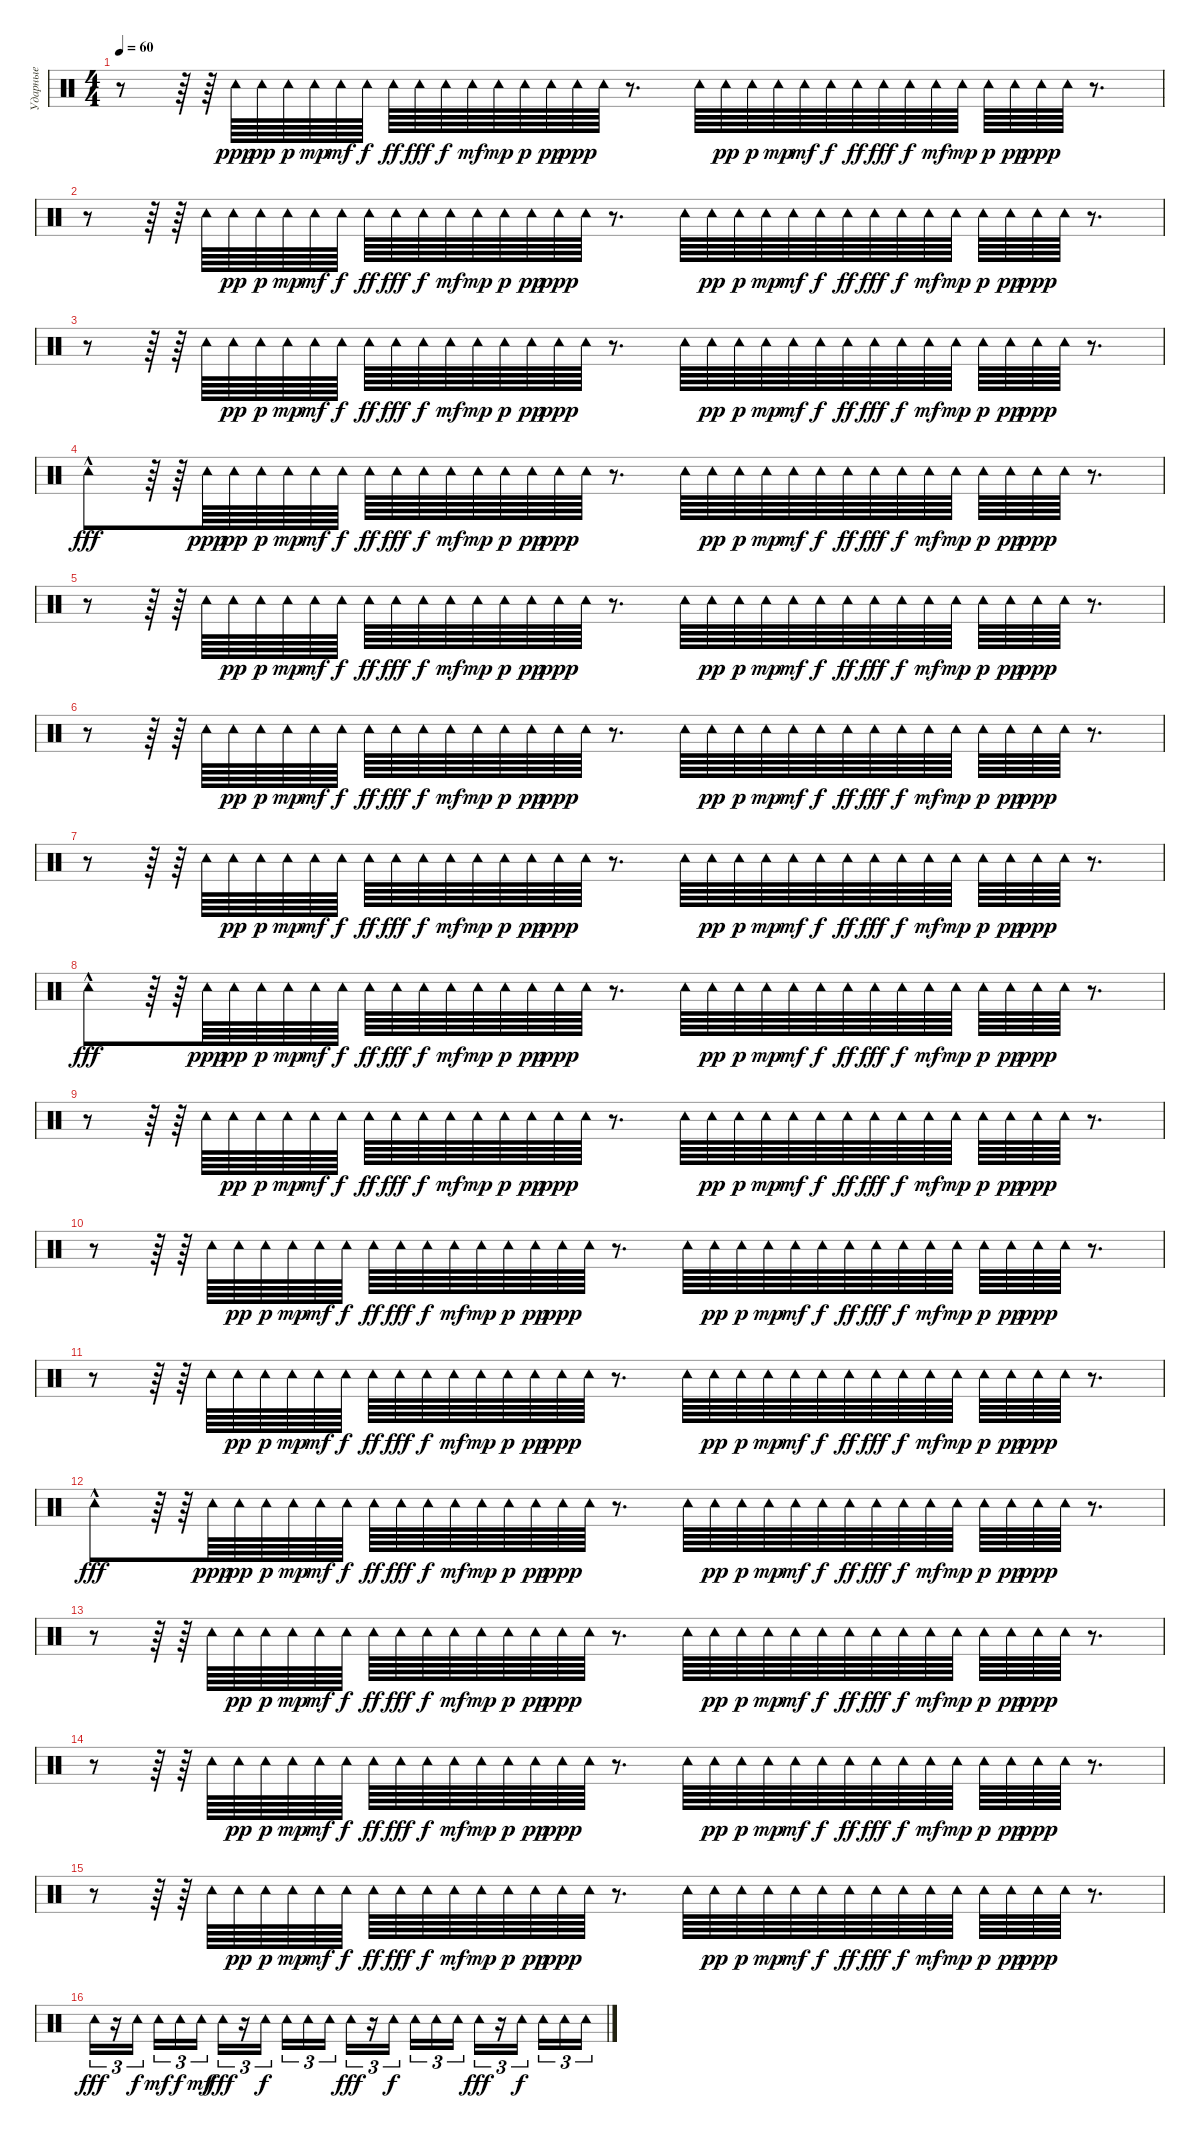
\track ("Ударные" "Ударные") {instrument percussion}
\staff {score}
\articulation defaults
\ts (4 4)
\tempo 60
\clef neutral
\ks c
r.8{dy ppp} r.64 r.64 "Tambourine (hit)".64 "Tambourine (hit)".64{dy pp} "Tambourine (hit)".64{dy p} "Tambourine (hit)".64{dy mp} "Tambourine (hit)".64{dy mf} "Tambourine (hit)".64{dy f} "Tambourine (hit)".64{dy ff} "Tambourine (hit)".64{dy fff} "Tambourine (hit)".64{dy f} "Tambourine (hit)".64{dy mf} "Tambourine (hit)".64{dy mp} "Tambourine (hit)".64{dy p} "Tambourine (hit)".64{dy pp} "Tambourine (hit)".64{dy ppp} "Tambourine (hit)".64 r.8{d} "Tambourine (hit)".64 "Tambourine (hit)".64{dy pp} "Tambourine (hit)".64{dy p} "Tambourine (hit)".64{dy mp} "Tambourine (hit)".64{dy mf} "Tambourine (hit)".64{dy f} "Tambourine (hit)".64{dy ff} "Tambourine (hit)".64{dy fff} "Tambourine (hit)".64{dy f} "Tambourine (hit)".64{dy mf} "Tambourine (hit)".64{dy mp} "Tambourine (hit)".64{dy p} "Tambourine (hit)".64{dy pp} "Tambourine (hit)".64{dy ppp} "Tambourine (hit)".64 r.8{d} |
r.8 r.64 r.64 "Tambourine (hit)".64 "Tambourine (hit)".64{dy pp} "Tambourine (hit)".64{dy p} "Tambourine (hit)".64{dy mp} "Tambourine (hit)".64{dy mf} "Tambourine (hit)".64{dy f} "Tambourine (hit)".64{dy ff} "Tambourine (hit)".64{dy fff} "Tambourine (hit)".64{dy f} "Tambourine (hit)".64{dy mf} "Tambourine (hit)".64{dy mp} "Tambourine (hit)".64{dy p} "Tambourine (hit)".64{dy pp} "Tambourine (hit)".64{dy ppp} "Tambourine (hit)".64 r.8{d} "Tambourine (hit)".64 "Tambourine (hit)".64{dy pp} "Tambourine (hit)".64{dy p} "Tambourine (hit)".64{dy mp} "Tambourine (hit)".64{dy mf} "Tambourine (hit)".64{dy f} "Tambourine (hit)".64{dy ff} "Tambourine (hit)".64{dy fff} "Tambourine (hit)".64{dy f} "Tambourine (hit)".64{dy mf} "Tambourine (hit)".64{dy mp} "Tambourine (hit)".64{dy p} "Tambourine (hit)".64{dy pp} "Tambourine (hit)".64{dy ppp} "Tambourine (hit)".64 r.8{d} |
r.8 r.64 r.64 "Tambourine (hit)".64 "Tambourine (hit)".64{dy pp} "Tambourine (hit)".64{dy p} "Tambourine (hit)".64{dy mp} "Tambourine (hit)".64{dy mf} "Tambourine (hit)".64{dy f} "Tambourine (hit)".64{dy ff} "Tambourine (hit)".64{dy fff} "Tambourine (hit)".64{dy f} "Tambourine (hit)".64{dy mf} "Tambourine (hit)".64{dy mp} "Tambourine (hit)".64{dy p} "Tambourine (hit)".64{dy pp} "Tambourine (hit)".64{dy ppp} "Tambourine (hit)".64 r.8{d} "Tambourine (hit)".64 "Tambourine (hit)".64{dy pp} "Tambourine (hit)".64{dy p} "Tambourine (hit)".64{dy mp} "Tambourine (hit)".64{dy mf} "Tambourine (hit)".64{dy f} "Tambourine (hit)".64{dy ff} "Tambourine (hit)".64{dy fff} "Tambourine (hit)".64{dy f} "Tambourine (hit)".64{dy mf} "Tambourine (hit)".64{dy mp} "Tambourine (hit)".64{dy p} "Tambourine (hit)".64{dy pp} "Tambourine (hit)".64{dy ppp} "Tambourine (hit)".64 r.8{d} |
"Tambourine (hit)"{hac}.8{dy fff} r.64 r.64 "Tambourine (hit)".64{dy ppp} "Tambourine (hit)".64{dy pp} "Tambourine (hit)".64{dy p} "Tambourine (hit)".64{dy mp} "Tambourine (hit)".64{dy mf} "Tambourine (hit)".64{dy f} "Tambourine (hit)".64{dy ff} "Tambourine (hit)".64{dy fff} "Tambourine (hit)".64{dy f} "Tambourine (hit)".64{dy mf} "Tambourine (hit)".64{dy mp} "Tambourine (hit)".64{dy p} "Tambourine (hit)".64{dy pp} "Tambourine (hit)".64{dy ppp} "Tambourine (hit)".64 r.8{d} "Tambourine (hit)".64 "Tambourine (hit)".64{dy pp} "Tambourine (hit)".64{dy p} "Tambourine (hit)".64{dy mp} "Tambourine (hit)".64{dy mf} "Tambourine (hit)".64{dy f} "Tambourine (hit)".64{dy ff} "Tambourine (hit)".64{dy fff} "Tambourine (hit)".64{dy f} "Tambourine (hit)".64{dy mf} "Tambourine (hit)".64{dy mp} "Tambourine (hit)".64{dy p} "Tambourine (hit)".64{dy pp} "Tambourine (hit)".64{dy ppp} "Tambourine (hit)".64 r.8{d} |
r.8 r.64 r.64 "Tambourine (hit)".64 "Tambourine (hit)".64{dy pp} "Tambourine (hit)".64{dy p} "Tambourine (hit)".64{dy mp} "Tambourine (hit)".64{dy mf} "Tambourine (hit)".64{dy f} "Tambourine (hit)".64{dy ff} "Tambourine (hit)".64{dy fff} "Tambourine (hit)".64{dy f} "Tambourine (hit)".64{dy mf} "Tambourine (hit)".64{dy mp} "Tambourine (hit)".64{dy p} "Tambourine (hit)".64{dy pp} "Tambourine (hit)".64{dy ppp} "Tambourine (hit)".64 r.8{d} "Tambourine (hit)".64 "Tambourine (hit)".64{dy pp} "Tambourine (hit)".64{dy p} "Tambourine (hit)".64{dy mp} "Tambourine (hit)".64{dy mf} "Tambourine (hit)".64{dy f} "Tambourine (hit)".64{dy ff} "Tambourine (hit)".64{dy fff} "Tambourine (hit)".64{dy f} "Tambourine (hit)".64{dy mf} "Tambourine (hit)".64{dy mp} "Tambourine (hit)".64{dy p} "Tambourine (hit)".64{dy pp} "Tambourine (hit)".64{dy ppp} "Tambourine (hit)".64 r.8{d} |
r.8 r.64 r.64 "Tambourine (hit)".64 "Tambourine (hit)".64{dy pp} "Tambourine (hit)".64{dy p} "Tambourine (hit)".64{dy mp} "Tambourine (hit)".64{dy mf} "Tambourine (hit)".64{dy f} "Tambourine (hit)".64{dy ff} "Tambourine (hit)".64{dy fff} "Tambourine (hit)".64{dy f} "Tambourine (hit)".64{dy mf} "Tambourine (hit)".64{dy mp} "Tambourine (hit)".64{dy p} "Tambourine (hit)".64{dy pp} "Tambourine (hit)".64{dy ppp} "Tambourine (hit)".64 r.8{d} "Tambourine (hit)".64 "Tambourine (hit)".64{dy pp} "Tambourine (hit)".64{dy p} "Tambourine (hit)".64{dy mp} "Tambourine (hit)".64{dy mf} "Tambourine (hit)".64{dy f} "Tambourine (hit)".64{dy ff} "Tambourine (hit)".64{dy fff} "Tambourine (hit)".64{dy f} "Tambourine (hit)".64{dy mf} "Tambourine (hit)".64{dy mp} "Tambourine (hit)".64{dy p} "Tambourine (hit)".64{dy pp} "Tambourine (hit)".64{dy ppp} "Tambourine (hit)".64 r.8{d} |
r.8 r.64 r.64 "Tambourine (hit)".64 "Tambourine (hit)".64{dy pp} "Tambourine (hit)".64{dy p} "Tambourine (hit)".64{dy mp} "Tambourine (hit)".64{dy mf} "Tambourine (hit)".64{dy f} "Tambourine (hit)".64{dy ff} "Tambourine (hit)".64{dy fff} "Tambourine (hit)".64{dy f} "Tambourine (hit)".64{dy mf} "Tambourine (hit)".64{dy mp} "Tambourine (hit)".64{dy p} "Tambourine (hit)".64{dy pp} "Tambourine (hit)".64{dy ppp} "Tambourine (hit)".64 r.8{d} "Tambourine (hit)".64 "Tambourine (hit)".64{dy pp} "Tambourine (hit)".64{dy p} "Tambourine (hit)".64{dy mp} "Tambourine (hit)".64{dy mf} "Tambourine (hit)".64{dy f} "Tambourine (hit)".64{dy ff} "Tambourine (hit)".64{dy fff} "Tambourine (hit)".64{dy f} "Tambourine (hit)".64{dy mf} "Tambourine (hit)".64{dy mp} "Tambourine (hit)".64{dy p} "Tambourine (hit)".64{dy pp} "Tambourine (hit)".64{dy ppp} "Tambourine (hit)".64 r.8{d} |
"Tambourine (hit)"{hac}.8{dy fff} r.64 r.64 "Tambourine (hit)".64{dy ppp} "Tambourine (hit)".64{dy pp} "Tambourine (hit)".64{dy p} "Tambourine (hit)".64{dy mp} "Tambourine (hit)".64{dy mf} "Tambourine (hit)".64{dy f} "Tambourine (hit)".64{dy ff} "Tambourine (hit)".64{dy fff} "Tambourine (hit)".64{dy f} "Tambourine (hit)".64{dy mf} "Tambourine (hit)".64{dy mp} "Tambourine (hit)".64{dy p} "Tambourine (hit)".64{dy pp} "Tambourine (hit)".64{dy ppp} "Tambourine (hit)".64 r.8{d} "Tambourine (hit)".64 "Tambourine (hit)".64{dy pp} "Tambourine (hit)".64{dy p} "Tambourine (hit)".64{dy mp} "Tambourine (hit)".64{dy mf} "Tambourine (hit)".64{dy f} "Tambourine (hit)".64{dy ff} "Tambourine (hit)".64{dy fff} "Tambourine (hit)".64{dy f} "Tambourine (hit)".64{dy mf} "Tambourine (hit)".64{dy mp} "Tambourine (hit)".64{dy p} "Tambourine (hit)".64{dy pp} "Tambourine (hit)".64{dy ppp} "Tambourine (hit)".64 r.8{d} |
r.8 r.64 r.64 "Tambourine (hit)".64 "Tambourine (hit)".64{dy pp} "Tambourine (hit)".64{dy p} "Tambourine (hit)".64{dy mp} "Tambourine (hit)".64{dy mf} "Tambourine (hit)".64{dy f} "Tambourine (hit)".64{dy ff} "Tambourine (hit)".64{dy fff} "Tambourine (hit)".64{dy f} "Tambourine (hit)".64{dy mf} "Tambourine (hit)".64{dy mp} "Tambourine (hit)".64{dy p} "Tambourine (hit)".64{dy pp} "Tambourine (hit)".64{dy ppp} "Tambourine (hit)".64 r.8{d} "Tambourine (hit)".64 "Tambourine (hit)".64{dy pp} "Tambourine (hit)".64{dy p} "Tambourine (hit)".64{dy mp} "Tambourine (hit)".64{dy mf} "Tambourine (hit)".64{dy f} "Tambourine (hit)".64{dy ff} "Tambourine (hit)".64{dy fff} "Tambourine (hit)".64{dy f} "Tambourine (hit)".64{dy mf} "Tambourine (hit)".64{dy mp} "Tambourine (hit)".64{dy p} "Tambourine (hit)".64{dy pp} "Tambourine (hit)".64{dy ppp} "Tambourine (hit)".64 r.8{d} |
r.8 r.64 r.64 "Tambourine (hit)".64 "Tambourine (hit)".64{dy pp} "Tambourine (hit)".64{dy p} "Tambourine (hit)".64{dy mp} "Tambourine (hit)".64{dy mf} "Tambourine (hit)".64{dy f} "Tambourine (hit)".64{dy ff} "Tambourine (hit)".64{dy fff} "Tambourine (hit)".64{dy f} "Tambourine (hit)".64{dy mf} "Tambourine (hit)".64{dy mp} "Tambourine (hit)".64{dy p} "Tambourine (hit)".64{dy pp} "Tambourine (hit)".64{dy ppp} "Tambourine (hit)".64 r.8{d} "Tambourine (hit)".64 "Tambourine (hit)".64{dy pp} "Tambourine (hit)".64{dy p} "Tambourine (hit)".64{dy mp} "Tambourine (hit)".64{dy mf} "Tambourine (hit)".64{dy f} "Tambourine (hit)".64{dy ff} "Tambourine (hit)".64{dy fff} "Tambourine (hit)".64{dy f} "Tambourine (hit)".64{dy mf} "Tambourine (hit)".64{dy mp} "Tambourine (hit)".64{dy p} "Tambourine (hit)".64{dy pp} "Tambourine (hit)".64{dy ppp} "Tambourine (hit)".64 r.8{d} |
r.8 r.64 r.64 "Tambourine (hit)".64 "Tambourine (hit)".64{dy pp} "Tambourine (hit)".64{dy p} "Tambourine (hit)".64{dy mp} "Tambourine (hit)".64{dy mf} "Tambourine (hit)".64{dy f} "Tambourine (hit)".64{dy ff} "Tambourine (hit)".64{dy fff} "Tambourine (hit)".64{dy f} "Tambourine (hit)".64{dy mf} "Tambourine (hit)".64{dy mp} "Tambourine (hit)".64{dy p} "Tambourine (hit)".64{dy pp} "Tambourine (hit)".64{dy ppp} "Tambourine (hit)".64 r.8{d} "Tambourine (hit)".64 "Tambourine (hit)".64{dy pp} "Tambourine (hit)".64{dy p} "Tambourine (hit)".64{dy mp} "Tambourine (hit)".64{dy mf} "Tambourine (hit)".64{dy f} "Tambourine (hit)".64{dy ff} "Tambourine (hit)".64{dy fff} "Tambourine (hit)".64{dy f} "Tambourine (hit)".64{dy mf} "Tambourine (hit)".64{dy mp} "Tambourine (hit)".64{dy p} "Tambourine (hit)".64{dy pp} "Tambourine (hit)".64{dy ppp} "Tambourine (hit)".64 r.8{d} |
"Tambourine (hit)"{hac}.8{dy fff} r.64 r.64 "Tambourine (hit)".64{dy ppp} "Tambourine (hit)".64{dy pp} "Tambourine (hit)".64{dy p} "Tambourine (hit)".64{dy mp} "Tambourine (hit)".64{dy mf} "Tambourine (hit)".64{dy f} "Tambourine (hit)".64{dy ff} "Tambourine (hit)".64{dy fff} "Tambourine (hit)".64{dy f} "Tambourine (hit)".64{dy mf} "Tambourine (hit)".64{dy mp} "Tambourine (hit)".64{dy p} "Tambourine (hit)".64{dy pp} "Tambourine (hit)".64{dy ppp} "Tambourine (hit)".64 r.8{d} "Tambourine (hit)".64 "Tambourine (hit)".64{dy pp} "Tambourine (hit)".64{dy p} "Tambourine (hit)".64{dy mp} "Tambourine (hit)".64{dy mf} "Tambourine (hit)".64{dy f} "Tambourine (hit)".64{dy ff} "Tambourine (hit)".64{dy fff} "Tambourine (hit)".64{dy f} "Tambourine (hit)".64{dy mf} "Tambourine (hit)".64{dy mp} "Tambourine (hit)".64{dy p} "Tambourine (hit)".64{dy pp} "Tambourine (hit)".64{dy ppp} "Tambourine (hit)".64 r.8{d} |
r.8 r.64 r.64 "Tambourine (hit)".64 "Tambourine (hit)".64{dy pp} "Tambourine (hit)".64{dy p} "Tambourine (hit)".64{dy mp} "Tambourine (hit)".64{dy mf} "Tambourine (hit)".64{dy f} "Tambourine (hit)".64{dy ff} "Tambourine (hit)".64{dy fff} "Tambourine (hit)".64{dy f} "Tambourine (hit)".64{dy mf} "Tambourine (hit)".64{dy mp} "Tambourine (hit)".64{dy p} "Tambourine (hit)".64{dy pp} "Tambourine (hit)".64{dy ppp} "Tambourine (hit)".64 r.8{d} "Tambourine (hit)".64 "Tambourine (hit)".64{dy pp} "Tambourine (hit)".64{dy p} "Tambourine (hit)".64{dy mp} "Tambourine (hit)".64{dy mf} "Tambourine (hit)".64{dy f} "Tambourine (hit)".64{dy ff} "Tambourine (hit)".64{dy fff} "Tambourine (hit)".64{dy f} "Tambourine (hit)".64{dy mf} "Tambourine (hit)".64{dy mp} "Tambourine (hit)".64{dy p} "Tambourine (hit)".64{dy pp} "Tambourine (hit)".64{dy ppp} "Tambourine (hit)".64 r.8{d} |
r.8 r.64 r.64 "Tambourine (hit)".64 "Tambourine (hit)".64{dy pp} "Tambourine (hit)".64{dy p} "Tambourine (hit)".64{dy mp} "Tambourine (hit)".64{dy mf} "Tambourine (hit)".64{dy f} "Tambourine (hit)".64{dy ff} "Tambourine (hit)".64{dy fff} "Tambourine (hit)".64{dy f} "Tambourine (hit)".64{dy mf} "Tambourine (hit)".64{dy mp} "Tambourine (hit)".64{dy p} "Tambourine (hit)".64{dy pp} "Tambourine (hit)".64{dy ppp} "Tambourine (hit)".64 r.8{d} "Tambourine (hit)".64 "Tambourine (hit)".64{dy pp} "Tambourine (hit)".64{dy p} "Tambourine (hit)".64{dy mp} "Tambourine (hit)".64{dy mf} "Tambourine (hit)".64{dy f} "Tambourine (hit)".64{dy ff} "Tambourine (hit)".64{dy fff} "Tambourine (hit)".64{dy f} "Tambourine (hit)".64{dy mf} "Tambourine (hit)".64{dy mp} "Tambourine (hit)".64{dy p} "Tambourine (hit)".64{dy pp} "Tambourine (hit)".64{dy ppp} "Tambourine (hit)".64 r.8{d} |
r.8 r.64 r.64 "Tambourine (hit)".64 "Tambourine (hit)".64{dy pp} "Tambourine (hit)".64{dy p} "Tambourine (hit)".64{dy mp} "Tambourine (hit)".64{dy mf} "Tambourine (hit)".64{dy f} "Tambourine (hit)".64{dy ff} "Tambourine (hit)".64{dy fff} "Tambourine (hit)".64{dy f} "Tambourine (hit)".64{dy mf} "Tambourine (hit)".64{dy mp} "Tambourine (hit)".64{dy p} "Tambourine (hit)".64{dy pp} "Tambourine (hit)".64{dy ppp} "Tambourine (hit)".64 r.8{d} "Tambourine (hit)".64 "Tambourine (hit)".64{dy pp} "Tambourine (hit)".64{dy p} "Tambourine (hit)".64{dy mp} "Tambourine (hit)".64{dy mf} "Tambourine (hit)".64{dy f} "Tambourine (hit)".64{dy ff} "Tambourine (hit)".64{dy fff} "Tambourine (hit)".64{dy f} "Tambourine (hit)".64{dy mf} "Tambourine (hit)".64{dy mp} "Tambourine (hit)".64{dy p} "Tambourine (hit)".64{dy pp} "Tambourine (hit)".64{dy ppp} "Tambourine (hit)".64 r.8{d} |
"Tambourine (hit)".16{tu (3 2) dy fff} r.16{tu (3 2)} "Tambourine (hit)".16{tu (3 2) dy f beam splitsecondary} "Tambourine (hit)".16{tu (3 2) dy mf} "Tambourine (hit)".16{tu (3 2) dy f} "Tambourine (hit)".16{tu (3 2) dy mf} "Tambourine (hit)".16{tu (3 2) dy fff} r.16{tu (3 2)} "Tambourine (hit)".16{tu (3 2) dy f beam splitsecondary} "Tambourine (hit)".16{tu (3 2)} "Tambourine (hit)".16{tu (3 2)} "Tambourine (hit)".16{tu (3 2)} "Tambourine (hit)".16{tu (3 2) dy fff} r.16{tu (3 2)} "Tambourine (hit)".16{tu (3 2) dy f beam splitsecondary} "Tambourine (hit)".16{tu (3 2)} "Tambourine (hit)".16{tu (3 2)} "Tambourine (hit)".16{tu (3 2)} "Tambourine (hit)".16{tu (3 2) dy fff} r.16{tu (3 2)} "Tambourine (hit)".16{tu (3 2) dy f beam splitsecondary} "Tambourine (hit)".16{tu (3 2)} "Tambourine (hit)".16{tu (3 2)} "Tambourine (hit)".16{tu (3 2)}
